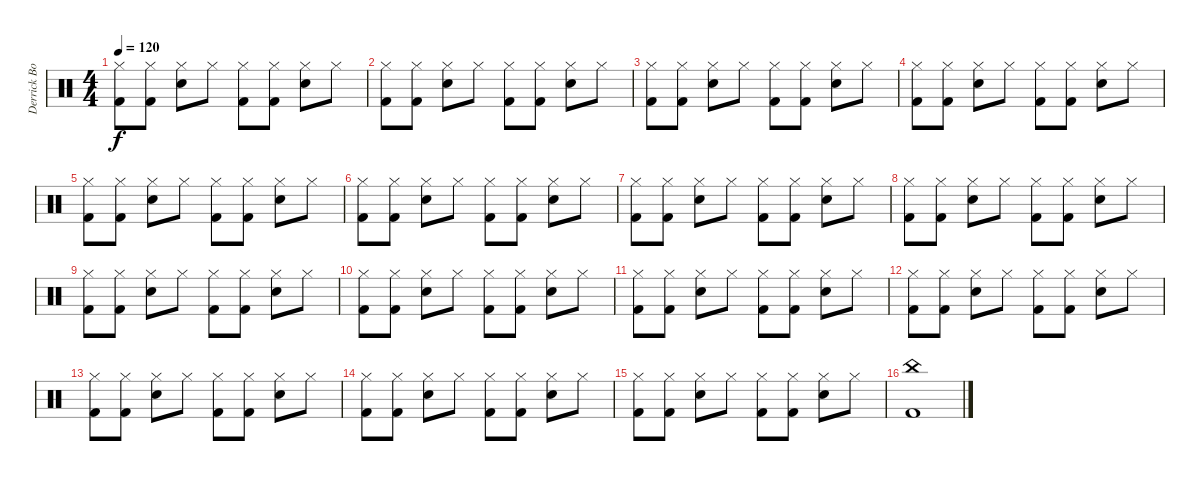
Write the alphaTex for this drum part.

\track ("Derrick Bostrom" "Derrick Bo") {instrument percussion}
\staff {score}
\articulation defaults
\ts (4 4)
\tempo 120
\clef neutral
\ks c
("Hi-Hat (closed)" "Kick (hit) 2").8{dy f} ("Hi-Hat (closed)" "Kick (hit) 2").8 ("Hi-Hat (closed)" "Snare (hit) 2").8 "Hi-Hat (closed)".8 ("Hi-Hat (closed)" "Kick (hit) 2").8 ("Hi-Hat (closed)" "Kick (hit) 2").8 ("Hi-Hat (closed)" "Snare (hit) 2").8 "Hi-Hat (closed)".8 |
("Hi-Hat (closed)" "Kick (hit) 2").8 ("Hi-Hat (closed)" "Kick (hit) 2").8 ("Hi-Hat (closed)" "Snare (hit) 2").8 "Hi-Hat (closed)".8 ("Hi-Hat (closed)" "Kick (hit) 2").8 ("Hi-Hat (closed)" "Kick (hit) 2").8 ("Hi-Hat (closed)" "Snare (hit) 2").8 "Hi-Hat (closed)".8 |
("Hi-Hat (closed)" "Kick (hit) 2").8 ("Hi-Hat (closed)" "Kick (hit) 2").8 ("Hi-Hat (closed)" "Snare (hit) 2").8 "Hi-Hat (closed)".8 ("Hi-Hat (closed)" "Kick (hit) 2").8 ("Hi-Hat (closed)" "Kick (hit) 2").8 ("Hi-Hat (closed)" "Snare (hit) 2").8 "Hi-Hat (closed)".8 |
("Hi-Hat (closed)" "Kick (hit) 2").8 ("Hi-Hat (closed)" "Kick (hit) 2").8 ("Hi-Hat (closed)" "Snare (hit) 2").8 "Hi-Hat (closed)".8 ("Hi-Hat (closed)" "Kick (hit) 2").8 ("Hi-Hat (closed)" "Kick (hit) 2").8 ("Hi-Hat (closed)" "Snare (hit) 2").8 "Hi-Hat (closed)".8 |
("Hi-Hat (closed)" "Kick (hit) 2").8 ("Hi-Hat (closed)" "Kick (hit) 2").8 ("Hi-Hat (closed)" "Snare (hit) 2").8 "Hi-Hat (closed)".8 ("Hi-Hat (closed)" "Kick (hit) 2").8 ("Hi-Hat (closed)" "Kick (hit) 2").8 ("Hi-Hat (closed)" "Snare (hit) 2").8 "Hi-Hat (closed)".8 |
("Hi-Hat (closed)" "Kick (hit) 2").8 ("Hi-Hat (closed)" "Kick (hit) 2").8 ("Hi-Hat (closed)" "Snare (hit) 2").8 "Hi-Hat (closed)".8 ("Hi-Hat (closed)" "Kick (hit) 2").8 ("Hi-Hat (closed)" "Kick (hit) 2").8 ("Hi-Hat (closed)" "Snare (hit) 2").8 "Hi-Hat (closed)".8 |
("Hi-Hat (closed)" "Kick (hit) 2").8 ("Hi-Hat (closed)" "Kick (hit) 2").8 ("Hi-Hat (closed)" "Snare (hit) 2").8 "Hi-Hat (closed)".8 ("Hi-Hat (closed)" "Kick (hit) 2").8 ("Hi-Hat (closed)" "Kick (hit) 2").8 ("Hi-Hat (closed)" "Snare (hit) 2").8 "Hi-Hat (closed)".8 |
("Hi-Hat (closed)" "Kick (hit) 2").8 ("Hi-Hat (closed)" "Kick (hit) 2").8 ("Hi-Hat (closed)" "Snare (hit) 2").8 "Hi-Hat (closed)".8 ("Hi-Hat (closed)" "Kick (hit) 2").8 ("Hi-Hat (closed)" "Kick (hit) 2").8 ("Hi-Hat (closed)" "Snare (hit) 2").8 "Hi-Hat (closed)".8 |
("Hi-Hat (closed)" "Kick (hit) 2").8 ("Hi-Hat (closed)" "Kick (hit) 2").8 ("Hi-Hat (closed)" "Snare (hit) 2").8 "Hi-Hat (closed)".8 ("Hi-Hat (closed)" "Kick (hit) 2").8 ("Hi-Hat (closed)" "Kick (hit) 2").8 ("Hi-Hat (closed)" "Snare (hit) 2").8 "Hi-Hat (closed)".8 |
("Hi-Hat (closed)" "Kick (hit) 2").8 ("Hi-Hat (closed)" "Kick (hit) 2").8 ("Hi-Hat (closed)" "Snare (hit) 2").8 "Hi-Hat (closed)".8 ("Hi-Hat (closed)" "Kick (hit) 2").8 ("Hi-Hat (closed)" "Kick (hit) 2").8 ("Hi-Hat (closed)" "Snare (hit) 2").8 "Hi-Hat (closed)".8 |
("Hi-Hat (closed)" "Kick (hit) 2").8 ("Hi-Hat (closed)" "Kick (hit) 2").8 ("Hi-Hat (closed)" "Snare (hit) 2").8 "Hi-Hat (closed)".8 ("Hi-Hat (closed)" "Kick (hit) 2").8 ("Hi-Hat (closed)" "Kick (hit) 2").8 ("Hi-Hat (closed)" "Snare (hit) 2").8 "Hi-Hat (closed)".8 |
("Hi-Hat (closed)" "Kick (hit) 2").8 ("Hi-Hat (closed)" "Kick (hit) 2").8 ("Hi-Hat (closed)" "Snare (hit) 2").8 "Hi-Hat (closed)".8 ("Hi-Hat (closed)" "Kick (hit) 2").8 ("Hi-Hat (closed)" "Kick (hit) 2").8 ("Hi-Hat (closed)" "Snare (hit) 2").8 "Hi-Hat (closed)".8 |
("Hi-Hat (closed)" "Kick (hit) 2").8 ("Hi-Hat (closed)" "Kick (hit) 2").8 ("Hi-Hat (closed)" "Snare (hit) 2").8 "Hi-Hat (closed)".8 ("Hi-Hat (closed)" "Kick (hit) 2").8 ("Hi-Hat (closed)" "Kick (hit) 2").8 ("Hi-Hat (closed)" "Snare (hit) 2").8 "Hi-Hat (closed)".8 |
("Hi-Hat (closed)" "Kick (hit) 2").8 ("Hi-Hat (closed)" "Kick (hit) 2").8 ("Hi-Hat (closed)" "Snare (hit) 2").8 "Hi-Hat (closed)".8 ("Hi-Hat (closed)" "Kick (hit) 2").8 ("Hi-Hat (closed)" "Kick (hit) 2").8 ("Hi-Hat (closed)" "Snare (hit) 2").8 "Hi-Hat (closed)".8 |
("Hi-Hat (closed)" "Kick (hit) 2").8 ("Hi-Hat (closed)" "Kick (hit) 2").8 ("Hi-Hat (closed)" "Snare (hit) 2").8 "Hi-Hat (closed)".8 ("Hi-Hat (closed)" "Kick (hit) 2").8 ("Hi-Hat (closed)" "Kick (hit) 2").8 ("Hi-Hat (closed)" "Snare (hit) 2").8 "Hi-Hat (closed)".8 |
("China (hit)" "Kick (hit) 2").1
